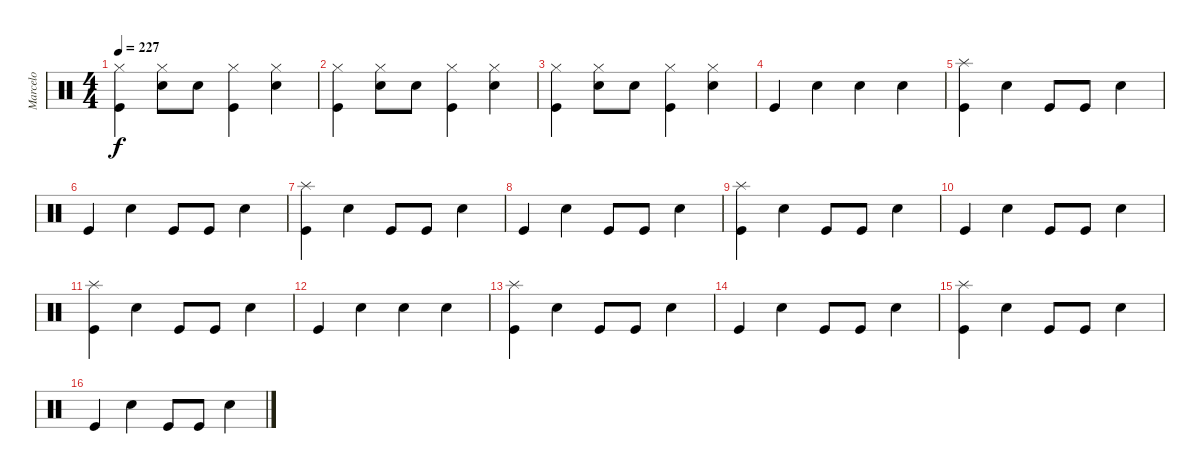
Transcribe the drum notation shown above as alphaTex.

\track ("Marcelo" "Marcelo") {instrument percussion}
\staff {score}
\articulation defaults
\ts (4 4)
\tempo 227
\clef neutral
\ks c
("Hi-Hat (closed)" "Kick (hit)").4{dy f} ("Hi-Hat (closed)" "Snare (hit) 2").8 "Snare (hit) 2".8 ("Hi-Hat (closed)" "Kick (hit)").4 ("Hi-Hat (closed)" "Snare (hit) 2").4 |
("Hi-Hat (closed)" "Kick (hit)").4 ("Hi-Hat (closed)" "Snare (hit) 2").8 "Snare (hit) 2".8 ("Hi-Hat (closed)" "Kick (hit)").4 ("Hi-Hat (closed)" "Snare (hit) 2").4 |
("Hi-Hat (closed)" "Kick (hit)").4 ("Hi-Hat (closed)" "Snare (hit) 2").8 "Snare (hit) 2".8 ("Hi-Hat (closed)" "Kick (hit)").4 ("Hi-Hat (closed)" "Snare (hit) 2").4 |
"Kick (hit)".4 "Snare (hit) 2".4 "Snare (hit) 2".4 "Snare (hit) 2".4 |
("Splash (hit)" "Kick (hit)").4 "Snare (hit) 2".4 "Kick (hit)".8 "Kick (hit)".8 "Snare (hit) 2".4 |
"Kick (hit)".4 "Snare (hit) 2".4 "Kick (hit)".8 "Kick (hit)".8 "Snare (hit) 2".4 |
("Splash (hit)" "Kick (hit)").4 "Snare (hit) 2".4 "Kick (hit)".8 "Kick (hit)".8 "Snare (hit) 2".4 |
"Kick (hit)".4 "Snare (hit) 2".4 "Kick (hit)".8 "Kick (hit)".8 "Snare (hit) 2".4 |
("Splash (hit)" "Kick (hit)").4 "Snare (hit) 2".4 "Kick (hit)".8 "Kick (hit)".8 "Snare (hit) 2".4 |
"Kick (hit)".4 "Snare (hit) 2".4 "Kick (hit)".8 "Kick (hit)".8 "Snare (hit) 2".4 |
("Splash (hit)" "Kick (hit)").4 "Snare (hit) 2".4 "Kick (hit)".8 "Kick (hit)".8 "Snare (hit) 2".4 |
"Kick (hit)".4 "Snare (hit) 2".4 "Snare (hit) 2".4 "Snare (hit) 2".4 |
("Splash (hit)" "Kick (hit)").4 "Snare (hit) 2".4 "Kick (hit)".8 "Kick (hit)".8 "Snare (hit) 2".4 |
"Kick (hit)".4 "Snare (hit) 2".4 "Kick (hit)".8 "Kick (hit)".8 "Snare (hit) 2".4 |
("Splash (hit)" "Kick (hit)").4 "Snare (hit) 2".4 "Kick (hit)".8 "Kick (hit)".8 "Snare (hit) 2".4 |
"Kick (hit)".4 "Snare (hit) 2".4 "Kick (hit)".8 "Kick (hit)".8 "Snare (hit) 2".4
